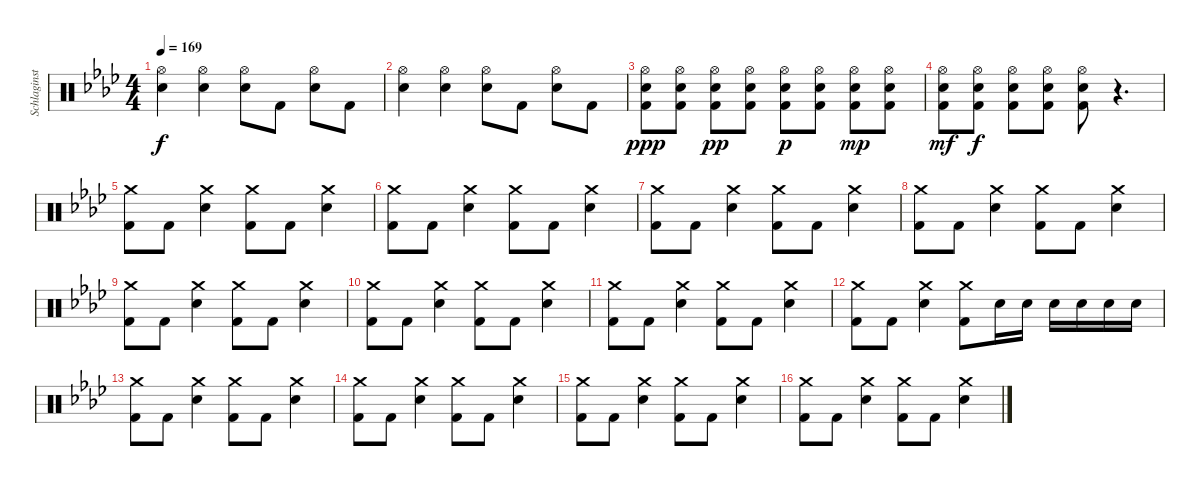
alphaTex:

\track ("Schlaginstrumente - Auswahl" "Schlaginst") {instrument percussion}
\staff {score}
\articulation defaults
\ts (4 4)
\tempo 169
\clef neutral
\ks fminor
("Hi-Hat (open)" "Electric Snare (hit)").4{dy f} ("Hi-Hat (open)" "Electric Snare (hit)").4 ("Hi-Hat (open)" "Electric Snare (hit)").8 "Kick (hit) 2".8 ("Hi-Hat (open)" "Electric Snare (hit)").8 "Kick (hit) 2".8 |
("Hi-Hat (open)" "Electric Snare (hit)").4 ("Hi-Hat (open)" "Electric Snare (hit)").4 ("Hi-Hat (open)" "Electric Snare (hit)").8 "Kick (hit) 2".8 ("Hi-Hat (open)" "Electric Snare (hit)").8 "Kick (hit) 2".8 |
("Hi-Hat (open)" "Electric Snare (hit)" "Kick (hit) 2").8{dy ppp} ("Hi-Hat (open)" "Electric Snare (hit)" "Kick (hit) 2").8 ("Hi-Hat (open)" "Electric Snare (hit)" "Kick (hit) 2").8{dy pp} ("Hi-Hat (open)" "Electric Snare (hit)" "Kick (hit) 2").8 ("Hi-Hat (open)" "Electric Snare (hit)" "Kick (hit) 2").8{dy p} ("Hi-Hat (open)" "Electric Snare (hit)" "Kick (hit) 2").8 ("Hi-Hat (open)" "Electric Snare (hit)" "Kick (hit) 2").8{dy mp} ("Hi-Hat (open)" "Electric Snare (hit)" "Kick (hit) 2").8 |
("Hi-Hat (open)" "Electric Snare (hit)" "Kick (hit) 2").8{dy mf} ("Hi-Hat (open)" "Electric Snare (hit)" "Kick (hit) 2").8{dy f} ("Hi-Hat (open)" "Electric Snare (hit)" "Kick (hit) 2").8 ("Hi-Hat (open)" "Electric Snare (hit)" "Kick (hit) 2").8 ("Hi-Hat (open)" "Electric Snare (hit)" "Kick (hit) 2").8 r.4{d} |
("Crash medium (hit)" "Kick (hit) 2").8 "Kick (hit) 2".8 ("Crash medium (hit)" "Electric Snare (hit)").4 ("Crash medium (hit)" "Kick (hit) 2").8 "Kick (hit) 2".8 ("Crash medium (hit)" "Electric Snare (hit)").4 |
("Crash medium (hit)" "Kick (hit) 2").8 "Kick (hit) 2".8 ("Crash medium (hit)" "Electric Snare (hit)").4 ("Crash medium (hit)" "Kick (hit) 2").8 "Kick (hit) 2".8 ("Crash medium (hit)" "Electric Snare (hit)").4 |
("Crash medium (hit)" "Kick (hit) 2").8 "Kick (hit) 2".8 ("Crash medium (hit)" "Electric Snare (hit)").4 ("Crash medium (hit)" "Kick (hit) 2").8 "Kick (hit) 2".8 ("Crash medium (hit)" "Electric Snare (hit)").4 |
("Crash medium (hit)" "Kick (hit) 2").8 "Kick (hit) 2".8 ("Crash medium (hit)" "Electric Snare (hit)").4 ("Crash medium (hit)" "Kick (hit) 2").8 "Kick (hit) 2".8 ("Crash medium (hit)" "Electric Snare (hit)").4 |
("Crash medium (hit)" "Kick (hit) 2").8 "Kick (hit) 2".8 ("Crash medium (hit)" "Electric Snare (hit)").4 ("Crash medium (hit)" "Kick (hit) 2").8 "Kick (hit) 2".8 ("Crash medium (hit)" "Electric Snare (hit)").4 |
("Crash medium (hit)" "Kick (hit) 2").8 "Kick (hit) 2".8 ("Crash medium (hit)" "Electric Snare (hit)").4 ("Crash medium (hit)" "Kick (hit) 2").8 "Kick (hit) 2".8 ("Crash medium (hit)" "Electric Snare (hit)").4 |
("Crash medium (hit)" "Kick (hit) 2").8 "Kick (hit) 2".8 ("Crash medium (hit)" "Electric Snare (hit)").4 ("Crash medium (hit)" "Kick (hit) 2").8 "Kick (hit) 2".8 ("Crash medium (hit)" "Electric Snare (hit)").4 |
("Crash medium (hit)" "Kick (hit) 2").8 "Kick (hit) 2".8 ("Crash medium (hit)" "Electric Snare (hit)").4 ("Crash medium (hit)" "Kick (hit) 2").8 "Electric Snare (hit)".16 "Electric Snare (hit)".16 "Electric Snare (hit)".16 "Electric Snare (hit)".16 "Electric Snare (hit)".16 "Electric Snare (hit)".16 |
("Crash medium (hit)" "Kick (hit) 2").8 "Kick (hit) 2".8 ("Crash medium (hit)" "Electric Snare (hit)").4 ("Crash medium (hit)" "Kick (hit) 2").8 "Kick (hit) 2".8 ("Crash medium (hit)" "Electric Snare (hit)").4 |
("Crash medium (hit)" "Kick (hit) 2").8 "Kick (hit) 2".8 ("Crash medium (hit)" "Electric Snare (hit)").4 ("Crash medium (hit)" "Kick (hit) 2").8 "Kick (hit) 2".8 ("Crash medium (hit)" "Electric Snare (hit)").4 |
("Crash medium (hit)" "Kick (hit) 2").8 "Kick (hit) 2".8 ("Crash medium (hit)" "Electric Snare (hit)").4 ("Crash medium (hit)" "Kick (hit) 2").8 "Kick (hit) 2".8 ("Crash medium (hit)" "Electric Snare (hit)").4 |
("Crash medium (hit)" "Kick (hit) 2").8 "Kick (hit) 2".8 ("Crash medium (hit)" "Electric Snare (hit)").4 ("Crash medium (hit)" "Kick (hit) 2").8 "Kick (hit) 2".8 ("Crash medium (hit)" "Electric Snare (hit)").4
